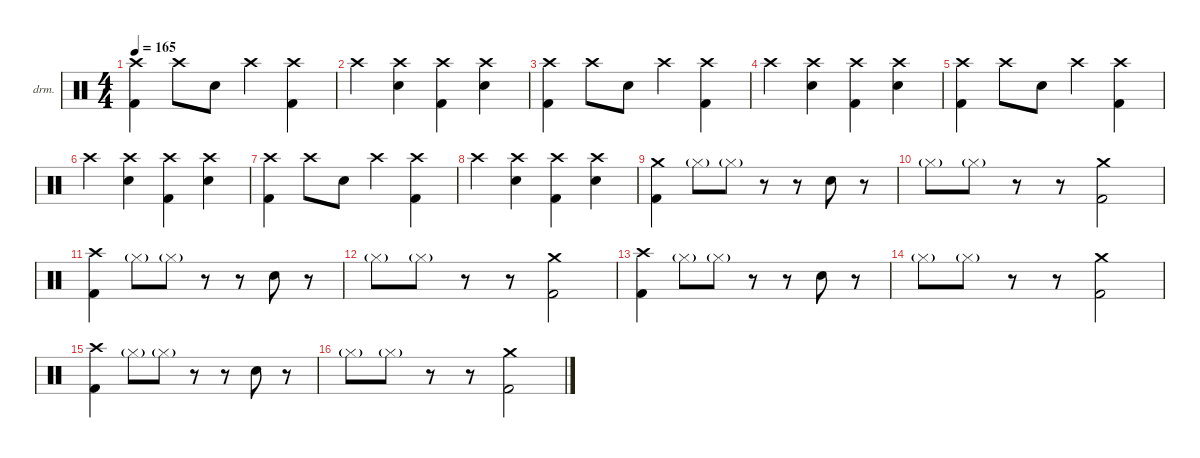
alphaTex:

\defaultSystemsLayout 4
\hideDynamics
\bracketExtendMode nobrackets
\firstSystemTrackNameOrientation horizontal
\otherSystemsTrackNameOrientation horizontal
\track ("Marty Chapman (Drums)" "drm.") {instrument percussion}
\staff {score}
\articulation defaults
\ts (4 4)
\tempo 165
\clef neutral
\ks c
("Crash high (hit)" "Kick (hit) 2").4{dy f beam Down} "Crash high (hit)".8{beam Down} "Snare (hit) 2".8{beam Down} "Crash high (hit)".4{beam Down} ("Crash high (hit)" "Kick (hit) 2").4{beam Down} |
"Crash high (hit)".4{beam Down} ("Crash high (hit)" "Snare (hit) 2").4{beam Down} ("Crash high (hit)" "Kick (hit) 2").4{beam Down} ("Crash high (hit)" "Snare (hit) 2").4{beam Down} |
("Crash high (hit)" "Kick (hit) 2").4{beam Down} "Crash high (hit)".8{beam Down} "Snare (hit) 2".8{beam Down} "Crash high (hit)".4{beam Down} ("Crash high (hit)" "Kick (hit) 2").4{beam Down} |
"Crash high (hit)".4{beam Down} ("Crash high (hit)" "Snare (hit) 2").4{beam Down} ("Crash high (hit)" "Kick (hit) 2").4{beam Down} ("Crash high (hit)" "Snare (hit) 2").4{beam Down} |
("Crash high (hit)" "Kick (hit) 2").4{beam Down} "Crash high (hit)".8{beam Down} "Snare (hit) 2".8{beam Down} "Crash high (hit)".4{beam Down} ("Crash high (hit)" "Kick (hit) 2").4{beam Down} |
"Crash high (hit)".4{beam Down} ("Crash high (hit)" "Snare (hit) 2").4{beam Down} ("Crash high (hit)" "Kick (hit) 2").4{beam Down} ("Crash high (hit)" "Snare (hit) 2").4{beam Down} |
("Crash high (hit)" "Kick (hit) 2").4{beam Down} "Crash high (hit)".8{beam Down} "Snare (hit) 2".8{beam Down} "Crash high (hit)".4{beam Down} ("Crash high (hit)" "Kick (hit) 2").4{beam Down} |
"Crash high (hit)".4{beam Down} ("Crash high (hit)" "Snare (hit) 2").4{beam Down} ("Crash high (hit)" "Kick (hit) 2").4{beam Down} ("Crash high (hit)" "Snare (hit) 2").4{beam Down} |
("Crash medium (hit)" "Kick (hit) 2").4{beam Down} "Hi-Hat (closed)"{g}.8{beam Down} "Hi-Hat (closed)"{g}.8{beam Down} r.8{beam Down} r.8{beam Down} "Snare (hit) 2".8{beam Down} r.8{beam Down} |
"Hi-Hat (closed)"{g}.8{beam Down} "Hi-Hat (closed)"{g}.8{beam Down} r.8{beam Down} r.8{beam Down} ("Crash medium (hit)" "Kick (hit) 2").2{beam Down} |
("Crash high (hit)" "Kick (hit) 2").4{beam Down} "Hi-Hat (closed)"{g}.8{beam Down} "Hi-Hat (closed)"{g}.8{beam Down} r.8{beam Down} r.8{beam Down} "Snare (hit) 2".8{beam Down} r.8{beam Down} |
"Hi-Hat (closed)"{g}.8{beam Down} "Hi-Hat (closed)"{g}.8{beam Down} r.8{beam Down} r.8{beam Down} ("Crash medium (hit)" "Kick (hit) 2").2{beam Down} |
("Crash high (hit)" "Kick (hit) 2").4{beam Down} "Hi-Hat (closed)"{g}.8{beam Down} "Hi-Hat (closed)"{g}.8{beam Down} r.8{beam Down} r.8{beam Down} "Snare (hit) 2".8{beam Down} r.8{beam Down} |
"Hi-Hat (closed)"{g}.8{beam Down} "Hi-Hat (closed)"{g}.8{beam Down} r.8{beam Down} r.8{beam Down} ("Crash medium (hit)" "Kick (hit) 2").2{beam Down} |
("Crash high (hit)" "Kick (hit) 2").4{beam Down} "Hi-Hat (closed)"{g}.8{beam Down} "Hi-Hat (closed)"{g}.8{beam Down} r.8{beam Down} r.8{beam Down} "Snare (hit) 2".8{beam Down} r.8{beam Down} |
"Hi-Hat (closed)"{g}.8{beam Down} "Hi-Hat (closed)"{g}.8{beam Down} r.8{beam Down} r.8{beam Down} ("Crash medium (hit)" "Kick (hit) 2").2{beam Down}
